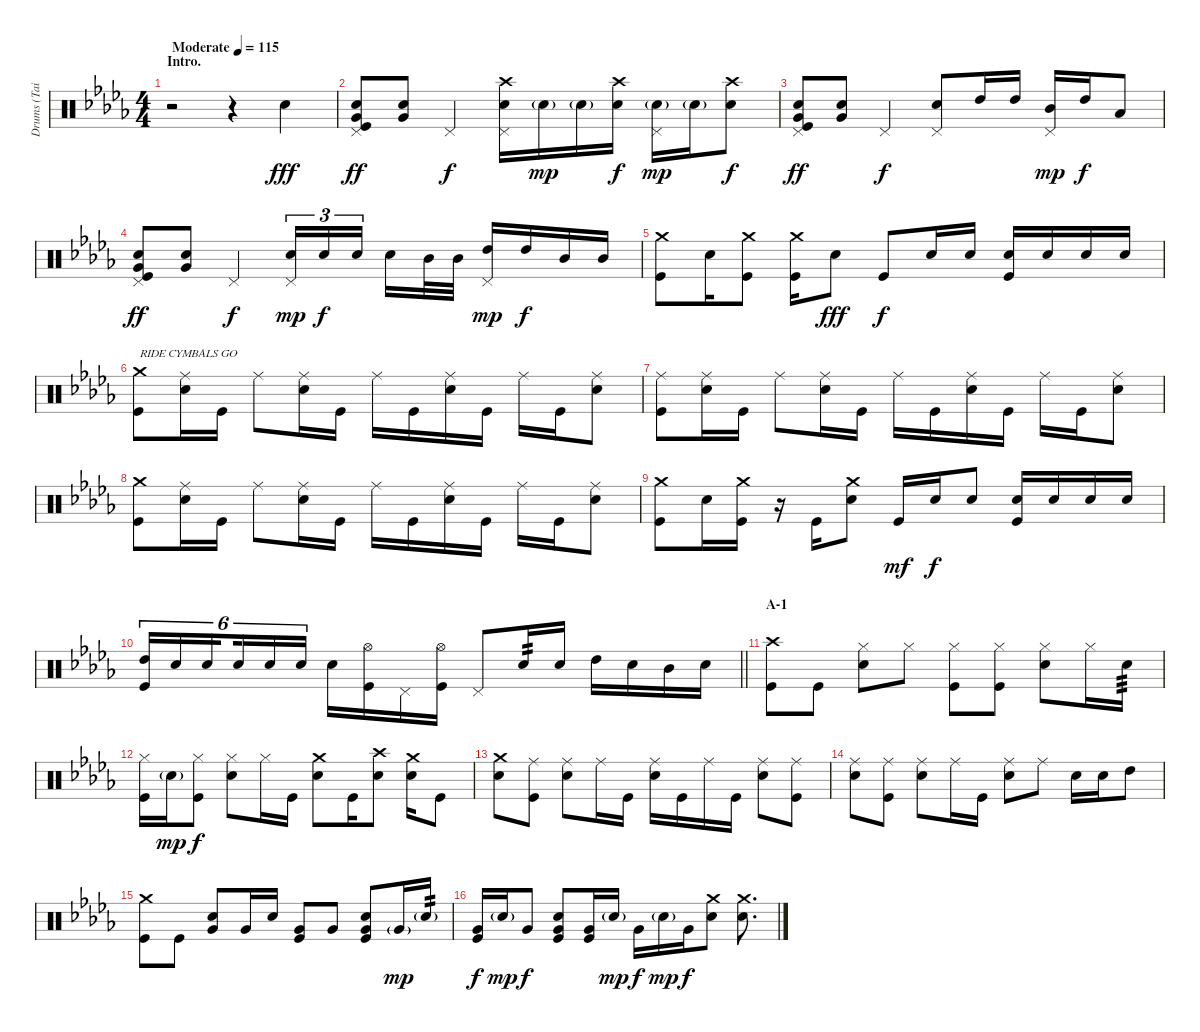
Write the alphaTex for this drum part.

\track ("Drums (Tainaka Ritsu)" "Drums (Tai") {instrument percussion}
\staff {score}
\articulation defaults
\ts (4 4)
\section ("" "Intro.")
\tempo (115 "Moderate")
\clef neutral
\ks db
r.2{dy fff} r.4 "Snare (hit) 2".4 |
("Pedal Hi-Hat (hit)" "Snare (hit) 2" "Very Low Tom (hit)" "Kick (hit)").8{dy ff} ("Snare (hit) 2" "Very Low Tom (hit)").8 "Pedal Hi-Hat (hit)".4{dy f} ("Pedal Hi-Hat (hit)" "Crash high (hit)" "Snare (hit) 2").16 "Snare (hit) 2"{g}.16{dy mp} "Snare (hit) 2"{g}.16 ("Crash high (hit)" "Snare (hit) 2").16{dy f} ("Pedal Hi-Hat (hit)" "Snare (hit) 2"{g}).16{dy mp} "Snare (hit) 2"{g}.16 ("Crash high (hit)" "Snare (hit) 2").8{dy f} |
("Pedal Hi-Hat (hit)" "Snare (hit) 2" "Very Low Tom (hit)" "Kick (hit)").8{dy ff} ("Snare (hit) 2" "Very Low Tom (hit)").8 "Pedal Hi-Hat (hit)".4{dy f} ("Pedal Hi-Hat (hit)" "Snare (hit) 2").8 "High Tom (hit)".16 "High Tom (hit)".16 ("Pedal Hi-Hat (hit)" "Mid Tom (hit)").16{dy mp} "High Tom (hit)".16{dy f} "Low Tom (hit)".8 |
("Pedal Hi-Hat (hit)" "Snare (hit) 2" "Very Low Tom (hit)" "Kick (hit)").8{dy ff} ("Snare (hit) 2" "Very Low Tom (hit)").8 "Pedal Hi-Hat (hit)".4{dy f} ("Pedal Hi-Hat (hit)" "Snare (hit) 2").16{tu (3 2) dy mp} "Snare (hit) 2".16{tu (3 2) dy f} "Snare (hit) 2".16{tu (3 2) beam splitsecondary} "Snare (hit) 2".16 "Mid Tom (hit)".32 "Mid Tom (hit)".32 ("Pedal Hi-Hat (hit)" "High Tom (hit)").16{dy mp} "High Tom (hit)".16{dy f} "Mid Tom (hit)".16 "Mid Tom (hit)".16 |
("Crash medium (hit)" "Kick (hit)").8 "Snare (hit) 2".16 ("Crash medium (hit)" "Kick (hit)").8 ("Crash medium (hit)" "Kick (hit)").16 "Snare (hit) 2".8{dy fff} "Kick (hit)".8{dy f} "Snare (hit) 2".16 "Snare (hit) 2".16 ("Snare (hit) 2" "Kick (hit)").16 "Snare (hit) 2".16 "Snare (hit) 2".16 "Snare (hit) 2".16 |
("Crash medium (hit)" "Kick (hit)").8{txt "RIDE CYMBALS GO"} ("Ride (middle)" "Snare (hit) 2").16 "Kick (hit)".16 "Ride (middle)".8 ("Ride (middle)" "Snare (hit) 2").16 "Kick (hit)".16 "Ride (middle)".16 "Kick (hit)".16 ("Ride (middle)" "Snare (hit) 2").16 "Kick (hit)".16 "Ride (middle)".16 "Kick (hit)".16 ("Ride (middle)" "Snare (hit) 2").8 |
("Ride (middle)" "Kick (hit)").8 ("Ride (middle)" "Snare (hit) 2").16 "Kick (hit)".16 "Ride (middle)".8 ("Ride (middle)" "Snare (hit) 2").16 "Kick (hit)".16 "Ride (middle)".16 "Kick (hit)".16 ("Ride (middle)" "Snare (hit) 2").16 "Kick (hit)".16 "Ride (middle)".16 "Kick (hit)".16 ("Ride (middle)" "Snare (hit) 2").8 |
("Crash medium (hit)" "Kick (hit)").8 ("Ride (middle)" "Snare (hit) 2").16 "Kick (hit)".16 "Ride (middle)".8 ("Ride (middle)" "Snare (hit) 2").16 "Kick (hit)".16 "Ride (middle)".16 "Kick (hit)".16 ("Ride (middle)" "Snare (hit) 2").16 "Kick (hit)".16 "Ride (middle)".16 "Kick (hit)".16 ("Ride (middle)" "Snare (hit) 2").8 |
("Crash medium (hit)" "Kick (hit)").8 "Snare (hit) 2".16 ("Crash medium (hit)" "Kick (hit)").16 r.16 "Kick (hit)".16 ("Crash medium (hit)" "Snare (hit) 2").8 "Kick (hit)".16{dy mf} "Snare (hit) 2".16{dy f} "Snare (hit) 2".8 ("Snare (hit) 2" "Kick (hit)").16 "Snare (hit) 2".16 "Snare (hit) 2".16 "Snare (hit) 2".16 |
\barLineRight lightlight
("High Tom (hit)" "Kick (hit)").16{tu (6 4)} "Snare (hit) 2".16{tu (6 4)} "Snare (hit) 2".16{tu (6 4) beam splitsecondary} "Snare (hit) 2".16{tu (6 4)} "Snare (hit) 2".16{tu (6 4)} "Snare (hit) 2".16{tu (6 4)} "Snare (hit) 2".16 ("Hi-Hat (open)" "Kick (hit)").16 "Pedal Hi-Hat (hit)".16 ("Hi-Hat (open)" "Kick (hit)").16 "Pedal Hi-Hat (hit)".8 "Snare (hit) 2".16{tp 2} "Snare (hit) 2".16 "High Tom (hit)".16 "Snare (hit) 2".16 "Mid Tom (hit)".16 "Snare (hit) 2".16 |
\section ("" "A-1")
("Crash high (hit)" "Kick (hit)").8 "Kick (hit)".8 ("Hi-Hat (closed)" "Snare (hit) 2").8 "Hi-Hat (closed)".8 ("Hi-Hat (closed)" "Kick (hit)").8 ("Hi-Hat (closed)" "Kick (hit)").8 ("Hi-Hat (closed)" "Snare (hit) 2").8 "Hi-Hat (closed)".16 "Snare (hit) 2".16{tp 3} |
("Hi-Hat (closed)" "Kick (hit)").16 "Snare (hit) 2"{g}.16{dy mp} ("Hi-Hat (closed)" "Kick (hit)").8{dy f} ("Hi-Hat (closed)" "Snare (hit) 2").8 "Hi-Hat (closed)".16 "Kick (hit)".16 ("Crash medium (hit)" "Snare (hit) 2").8 "Kick (hit)".16 ("Crash high (hit)" "Snare (hit) 2").8 ("Crash medium (hit)" "Snare (hit) 2").16 "Kick (hit)".8 |
("Crash medium (hit)" "Snare (hit) 2").8 ("Ride (middle)" "Kick (hit)").8 ("Ride (middle)" "Snare (hit) 2").8 "Ride (middle)".16 "Kick (hit)".16 ("Ride (middle)" "Snare (hit) 2").16 "Kick (hit)".16 "Ride (middle)".16 "Kick (hit)".16 ("Ride (middle)" "Snare (hit) 2").8 ("Ride (middle)" "Kick (hit)").8 |
("Ride (middle)" "Snare (hit) 2").8 ("Ride (middle)" "Kick (hit)").8 ("Ride (middle)" "Snare (hit) 2").8 "Ride (middle)".16 "Kick (hit)".16 ("Ride (middle)" "Snare (hit) 2").8 "Ride (middle)".8 "Snare (hit) 2".16 "Snare (hit) 2".16 "High Tom (hit)".8 |
("Crash medium (hit)" "Kick (hit)").8 "Kick (hit)".8 ("Snare (hit) 2" "Very Low Tom (hit)").8 "Very Low Tom (hit)".16 "Snare (hit) 2".16 ("Very Low Tom (hit)" "Kick (hit)").8 "Very Low Tom (hit)".8 ("Snare (hit) 2" "Very Low Tom (hit)" "Kick (hit)").8 "Very Low Tom (hit)"{g}.16{dy mp} "Snare (hit) 2"{g}.16{tp 2} |
("Very Low Tom (hit)" "Kick (hit)").16{dy f} "Snare (hit) 2"{g}.16{dy mp} "Very Low Tom (hit)".8{dy f} ("Snare (hit) 2" "Very Low Tom (hit)" "Kick (hit)").8 ("Very Low Tom (hit)" "Kick (hit)").16 "Snare (hit) 2"{g}.16{dy mp} "Very Low Tom (hit)".16{dy f} "Snare (hit) 2"{g}.16{dy mp} "Very Low Tom (hit)".16{dy f} ("Crash medium (hit)" "Snare (hit) 2").8 ("Crash medium (hit)" "Snare (hit) 2").8{d}
